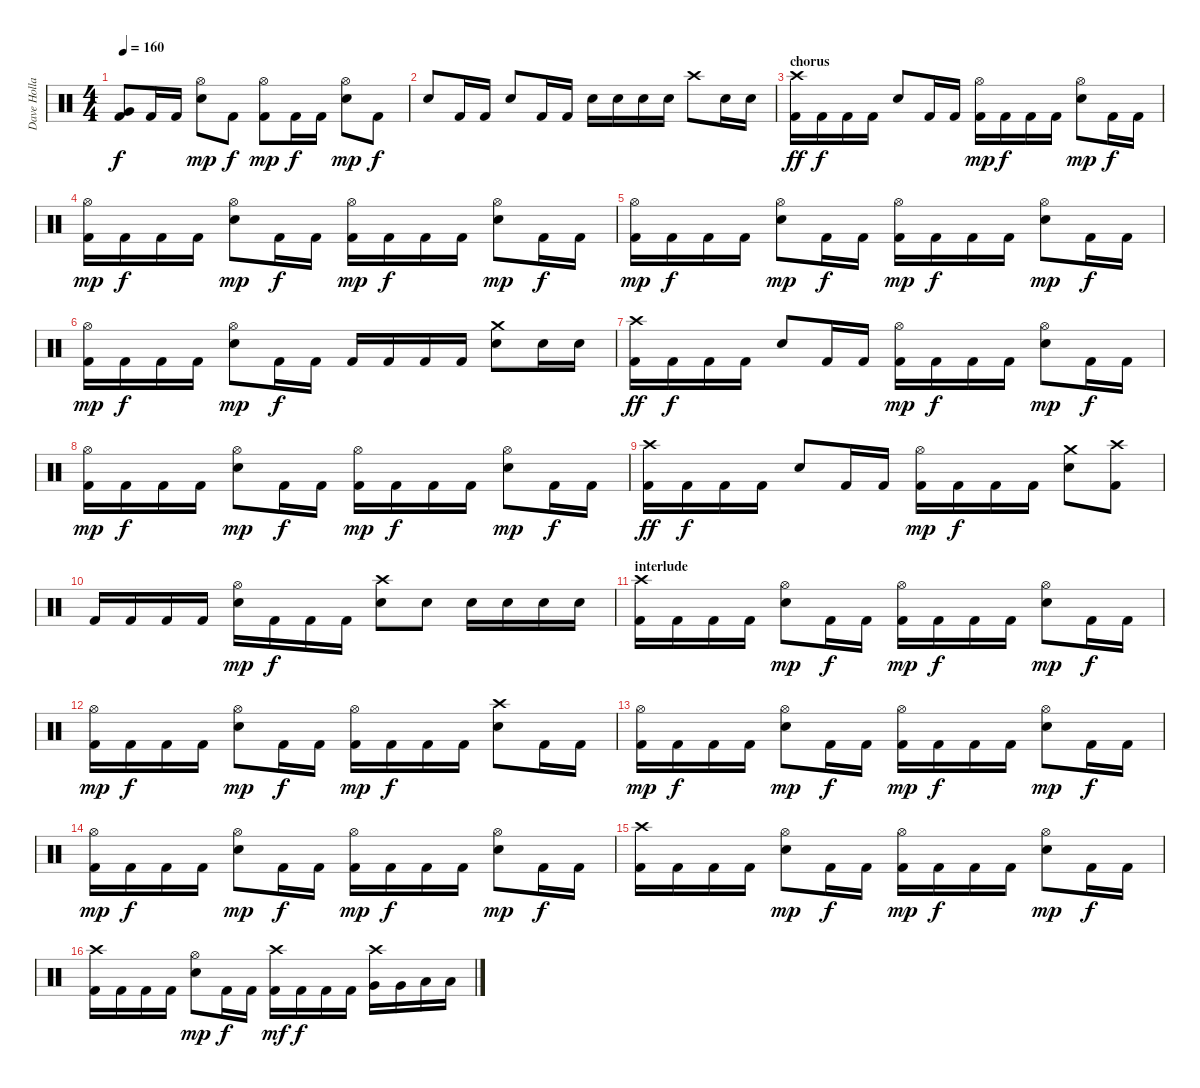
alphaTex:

\track ("Dave Holland" "Dave Holla") {instrument percussion}
\staff {score}
\articulation defaults
\ts (4 4)
\tempo 160
\clef neutral
\ks c
("Kick (hit) 2" "Very Low Tom (hit)").8{dy f} "Kick (hit) 2".16 "Kick (hit) 2".16 ("Hi-Hat (open)" "Snare (hit) 2").8{dy mp} "Kick (hit) 2".8{dy f} ("Kick (hit) 2" "Hi-Hat (open)").8{dy mp} "Kick (hit) 2".16{dy f} "Kick (hit) 2".16 ("Hi-Hat (open)" "Snare (hit) 2").8{dy mp} "Kick (hit) 2".8{dy f} |
"Snare (hit) 2".8 "Kick (hit) 2".16 "Kick (hit) 2".16 "Snare (hit) 2".8 "Kick (hit) 2".16 "Kick (hit) 2".16 "Snare (hit) 2".16 "Snare (hit) 2".16 "Snare (hit) 2".16 "Snare (hit) 2".16 "Crash high (hit)".8 "Snare (hit) 2".16 "Snare (hit) 2".16 |
\section ("" "chorus")
("Kick (hit) 2" "Crash high (hit)").16{dy ff} "Kick (hit) 2".16{dy f} "Kick (hit) 2".16 "Kick (hit) 2".16 "Snare (hit) 2".8 "Kick (hit) 2".16 "Kick (hit) 2".16 ("Kick (hit) 2" "Hi-Hat (open)").16{dy mp} "Kick (hit) 2".16{dy f} "Kick (hit) 2".16 "Kick (hit) 2".16 ("Hi-Hat (open)" "Snare (hit) 2").8{dy mp} "Kick (hit) 2".16{dy f} "Kick (hit) 2".16 |
("Kick (hit) 2" "Hi-Hat (open)").16{dy mp} "Kick (hit) 2".16{dy f} "Kick (hit) 2".16 "Kick (hit) 2".16 ("Hi-Hat (open)" "Snare (hit) 2").8{dy mp} "Kick (hit) 2".16{dy f} "Kick (hit) 2".16 ("Kick (hit) 2" "Hi-Hat (open)").16{dy mp} "Kick (hit) 2".16{dy f} "Kick (hit) 2".16 "Kick (hit) 2".16 ("Hi-Hat (open)" "Snare (hit) 2").8{dy mp} "Kick (hit) 2".16{dy f} "Kick (hit) 2".16 |
("Kick (hit) 2" "Hi-Hat (open)").16{dy mp} "Kick (hit) 2".16{dy f} "Kick (hit) 2".16 "Kick (hit) 2".16 ("Hi-Hat (open)" "Snare (hit) 2").8{dy mp} "Kick (hit) 2".16{dy f} "Kick (hit) 2".16 ("Kick (hit) 2" "Hi-Hat (open)").16{dy mp} "Kick (hit) 2".16{dy f} "Kick (hit) 2".16 "Kick (hit) 2".16 ("Hi-Hat (open)" "Snare (hit) 2").8{dy mp} "Kick (hit) 2".16{dy f} "Kick (hit) 2".16 |
("Kick (hit) 2" "Hi-Hat (open)").16{dy mp} "Kick (hit) 2".16{dy f} "Kick (hit) 2".16 "Kick (hit) 2".16 ("Hi-Hat (open)" "Snare (hit) 2").8{dy mp} "Kick (hit) 2".16{dy f} "Kick (hit) 2".16 "Kick (hit) 2".16 "Kick (hit) 2".16 "Kick (hit) 2".16 "Kick (hit) 2".16 ("Crash medium (hit)" "Snare (hit) 2").8 "Snare (hit) 2".16 "Snare (hit) 2".16 |
("Kick (hit) 2" "Crash high (hit)").16{dy ff} "Kick (hit) 2".16{dy f} "Kick (hit) 2".16 "Kick (hit) 2".16 "Snare (hit) 2".8 "Kick (hit) 2".16 "Kick (hit) 2".16 ("Kick (hit) 2" "Hi-Hat (open)").16{dy mp} "Kick (hit) 2".16{dy f} "Kick (hit) 2".16 "Kick (hit) 2".16 ("Hi-Hat (open)" "Snare (hit) 2").8{dy mp} "Kick (hit) 2".16{dy f} "Kick (hit) 2".16 |
("Kick (hit) 2" "Hi-Hat (open)").16{dy mp} "Kick (hit) 2".16{dy f} "Kick (hit) 2".16 "Kick (hit) 2".16 ("Hi-Hat (open)" "Snare (hit) 2").8{dy mp} "Kick (hit) 2".16{dy f} "Kick (hit) 2".16 ("Kick (hit) 2" "Hi-Hat (open)").16{dy mp} "Kick (hit) 2".16{dy f} "Kick (hit) 2".16 "Kick (hit) 2".16 ("Hi-Hat (open)" "Snare (hit) 2").8{dy mp} "Kick (hit) 2".16{dy f} "Kick (hit) 2".16 |
("Kick (hit) 2" "Crash high (hit)").16{dy ff} "Kick (hit) 2".16{dy f} "Kick (hit) 2".16 "Kick (hit) 2".16 "Snare (hit) 2".8 "Kick (hit) 2".16 "Kick (hit) 2".16 ("Kick (hit) 2" "Hi-Hat (open)").16{dy mp} "Kick (hit) 2".16{dy f} "Kick (hit) 2".16 "Kick (hit) 2".16 ("Crash medium (hit)" "Snare (hit) 2").8 ("Kick (hit) 2" "Crash high (hit)").8 |
"Kick (hit) 2".16 "Kick (hit) 2".16 "Kick (hit) 2".16 "Kick (hit) 2".16 ("Hi-Hat (open)" "Snare (hit) 2").16{dy mp} "Kick (hit) 2".16{dy f} "Kick (hit) 2".16 "Kick (hit) 2".16 ("Crash high (hit)" "Snare (hit) 2").8 "Snare (hit) 2".8 "Snare (hit) 2".16 "Snare (hit) 2".16 "Snare (hit) 2".16 "Snare (hit) 2".16 |
\section ("" "interlude")
("Kick (hit) 2" "Crash high (hit)").16 "Kick (hit) 2".16 "Kick (hit) 2".16 "Kick (hit) 2".16 ("Hi-Hat (open)" "Snare (hit) 2").8{dy mp} "Kick (hit) 2".16{dy f} "Kick (hit) 2".16 ("Kick (hit) 2" "Hi-Hat (open)").16{dy mp} "Kick (hit) 2".16{dy f} "Kick (hit) 2".16 "Kick (hit) 2".16 ("Hi-Hat (open)" "Snare (hit) 2").8{dy mp} "Kick (hit) 2".16{dy f} "Kick (hit) 2".16 |
("Kick (hit) 2" "Hi-Hat (open)").16{dy mp} "Kick (hit) 2".16{dy f} "Kick (hit) 2".16 "Kick (hit) 2".16 ("Hi-Hat (open)" "Snare (hit) 2").8{dy mp} "Kick (hit) 2".16{dy f} "Kick (hit) 2".16 ("Kick (hit) 2" "Hi-Hat (open)").16{dy mp} "Kick (hit) 2".16{dy f} "Kick (hit) 2".16 "Kick (hit) 2".16 ("Crash high (hit)" "Snare (hit) 2").8 "Kick (hit) 2".16 "Kick (hit) 2".16 |
("Kick (hit) 2" "Hi-Hat (open)").16{dy mp} "Kick (hit) 2".16{dy f} "Kick (hit) 2".16 "Kick (hit) 2".16 ("Hi-Hat (open)" "Snare (hit) 2").8{dy mp} "Kick (hit) 2".16{dy f} "Kick (hit) 2".16 ("Kick (hit) 2" "Hi-Hat (open)").16{dy mp} "Kick (hit) 2".16{dy f} "Kick (hit) 2".16 "Kick (hit) 2".16 ("Hi-Hat (open)" "Snare (hit) 2").8{dy mp} "Kick (hit) 2".16{dy f} "Kick (hit) 2".16 |
("Kick (hit) 2" "Hi-Hat (open)").16{dy mp} "Kick (hit) 2".16{dy f} "Kick (hit) 2".16 "Kick (hit) 2".16 ("Hi-Hat (open)" "Snare (hit) 2").8{dy mp} "Kick (hit) 2".16{dy f} "Kick (hit) 2".16 ("Kick (hit) 2" "Hi-Hat (open)").16{dy mp} "Kick (hit) 2".16{dy f} "Kick (hit) 2".16 "Kick (hit) 2".16 ("Hi-Hat (open)" "Snare (hit) 2").8{dy mp} "Kick (hit) 2".16{dy f} "Kick (hit) 2".16 |
("Kick (hit) 2" "Crash high (hit)").16 "Kick (hit) 2".16 "Kick (hit) 2".16 "Kick (hit) 2".16 ("Hi-Hat (open)" "Snare (hit) 2").8{dy mp} "Kick (hit) 2".16{dy f} "Kick (hit) 2".16 ("Kick (hit) 2" "Hi-Hat (open)").16{dy mp} "Kick (hit) 2".16{dy f} "Kick (hit) 2".16 "Kick (hit) 2".16 ("Hi-Hat (open)" "Snare (hit) 2").8{dy mp} "Kick (hit) 2".16{dy f} "Kick (hit) 2".16 |
("Kick (hit) 2" "Crash high (hit)").16 "Kick (hit) 2".16 "Kick (hit) 2".16 "Kick (hit) 2".16 ("Hi-Hat (open)" "Snare (hit) 2").8{dy mp} "Kick (hit) 2".16{dy f} "Kick (hit) 2".16 ("Kick (hit) 2" "Crash high (hit)").16{dy mf} "Kick (hit) 2".16{dy f} "Kick (hit) 2".16 "Kick (hit) 2".16 ("Crash high (hit)" "Very Low Tom (hit)").16 "Very Low Tom (hit)".16 "Low Tom (hit)".16 "Low Tom (hit)".16
